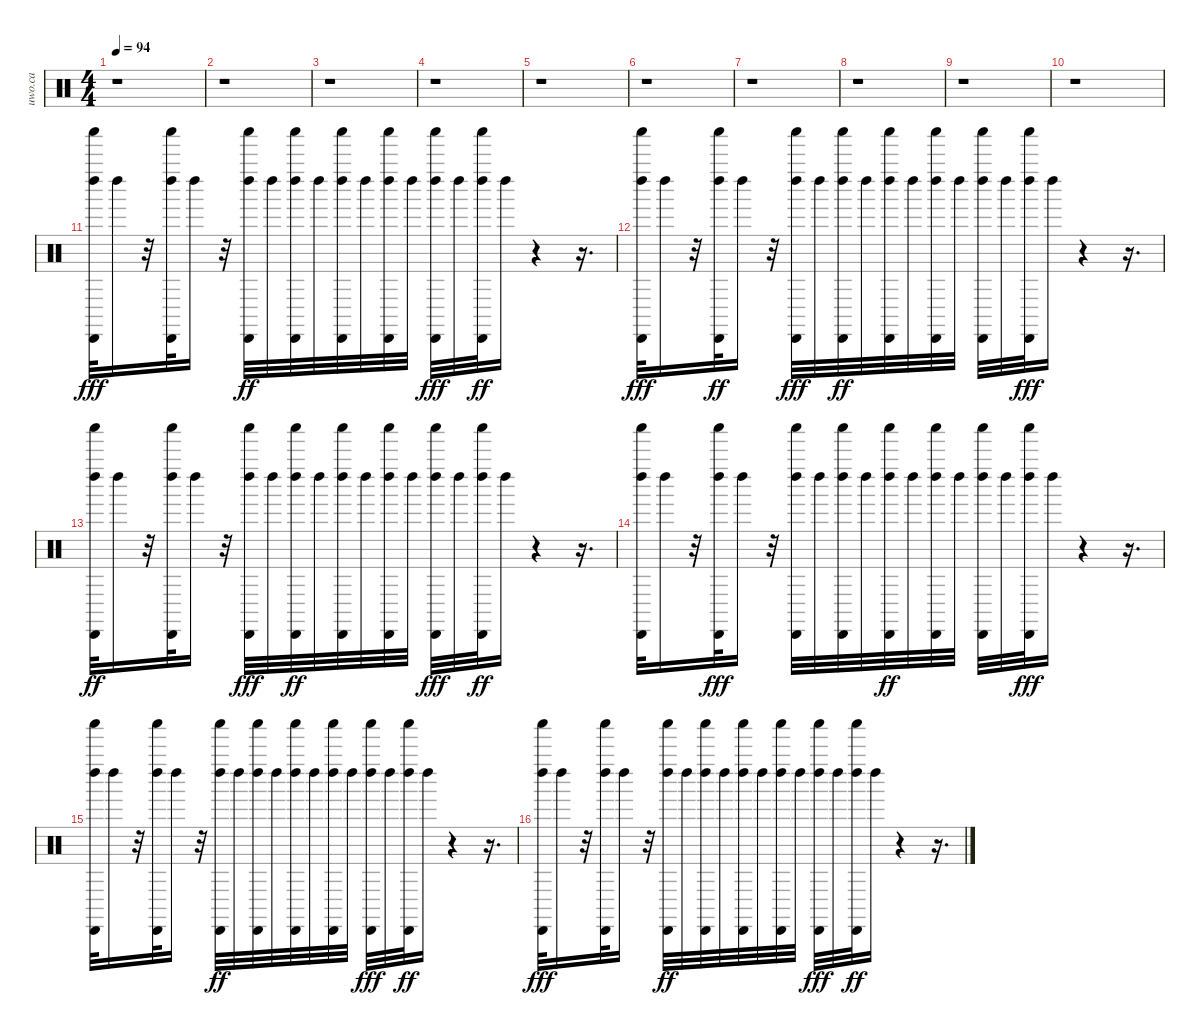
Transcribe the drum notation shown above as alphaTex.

\track ("uwo.ca" "uwo.ca") {instrument percussion}
\staff {score}
\articulation defaults
\ts (4 4)
\tempo 94
\clef neutral
\ks c
r.1{dy ff} |
r.1 |
r.1 |
r.1 |
r.1 |
r.1 |
r.1 |
r.1 |
r.1 |
r.1 |
("Shaker (hit)" "Cabasa (hit)" "Left Maraca (hit)").32{dy fff} "Left Maraca (hit)".16 r.32 ("Shaker (hit)" "Cabasa (hit)" "Left Maraca (hit)").32 "Left Maraca (hit)".16 r.32 ("Shaker (hit)" "Cabasa (hit)" "Left Maraca (hit)").32{dy ff} "Left Maraca (hit)".32 ("Cabasa (hit)" "Shaker (hit)" "Left Maraca (hit)").32 "Left Maraca (hit)".32 ("Cabasa (hit)" "Shaker (hit)" "Left Maraca (hit)").32 "Left Maraca (hit)".32 ("Cabasa (hit)" "Shaker (hit)" "Left Maraca (hit)").32 "Left Maraca (hit)".32 ("Cabasa (hit)" "Shaker (hit)" "Left Maraca (hit)").32{dy fff} "Left Maraca (hit)".32 ("Shaker (hit)" "Cabasa (hit)" "Left Maraca (hit)").32{dy ff} "Left Maraca (hit)".16 r.4 r.16{d} |
("Shaker (hit)" "Cabasa (hit)" "Left Maraca (hit)").32{dy fff} "Left Maraca (hit)".16 r.32 ("Shaker (hit)" "Cabasa (hit)" "Left Maraca (hit)").32{dy ff} "Left Maraca (hit)".16 r.32 ("Shaker (hit)" "Cabasa (hit)" "Left Maraca (hit)").32{dy fff} "Left Maraca (hit)".32 ("Shaker (hit)" "Cabasa (hit)" "Left Maraca (hit)").32{dy ff} "Left Maraca (hit)".32 ("Cabasa (hit)" "Shaker (hit)" "Left Maraca (hit)").32 "Left Maraca (hit)".32 ("Cabasa (hit)" "Shaker (hit)" "Left Maraca (hit)").32 "Left Maraca (hit)".32 ("Cabasa (hit)" "Shaker (hit)" "Left Maraca (hit)").32 "Left Maraca (hit)".32 ("Cabasa (hit)" "Shaker (hit)" "Left Maraca (hit)").32{dy fff} "Left Maraca (hit)".16 r.4 r.16{d} |
("Shaker (hit)" "Cabasa (hit)" "Left Maraca (hit)").32{dy ff} "Left Maraca (hit)".16 r.32 ("Shaker (hit)" "Cabasa (hit)" "Left Maraca (hit)").32 "Left Maraca (hit)".16 r.32 ("Shaker (hit)" "Cabasa (hit)" "Left Maraca (hit)").32{dy fff} "Left Maraca (hit)".32 ("Shaker (hit)" "Cabasa (hit)" "Left Maraca (hit)").32{dy ff} "Left Maraca (hit)".32 ("Cabasa (hit)" "Shaker (hit)" "Left Maraca (hit)").32 "Left Maraca (hit)".32 ("Cabasa (hit)" "Shaker (hit)" "Left Maraca (hit)").32 "Left Maraca (hit)".32 ("Cabasa (hit)" "Shaker (hit)" "Left Maraca (hit)").32{dy fff} "Left Maraca (hit)".32 ("Cabasa (hit)" "Shaker (hit)" "Left Maraca (hit)").32{dy ff} "Left Maraca (hit)".16 r.4 r.16{d} |
("Shaker (hit)" "Cabasa (hit)" "Left Maraca (hit)").32 "Left Maraca (hit)".16 r.32 ("Shaker (hit)" "Cabasa (hit)" "Left Maraca (hit)").32{dy fff} "Left Maraca (hit)".16 r.32 ("Shaker (hit)" "Cabasa (hit)" "Left Maraca (hit)").32 "Left Maraca (hit)".32 ("Shaker (hit)" "Cabasa (hit)" "Left Maraca (hit)").32 "Left Maraca (hit)".32 ("Cabasa (hit)" "Shaker (hit)" "Left Maraca (hit)").32{dy ff} "Left Maraca (hit)".32 ("Cabasa (hit)" "Shaker (hit)" "Left Maraca (hit)").32 "Left Maraca (hit)".32 ("Cabasa (hit)" "Shaker (hit)" "Left Maraca (hit)").32 "Left Maraca (hit)".32 ("Cabasa (hit)" "Shaker (hit)" "Left Maraca (hit)").32{dy fff} "Left Maraca (hit)".16 r.4 r.16{d} |
("Shaker (hit)" "Cabasa (hit)" "Left Maraca (hit)").32 "Left Maraca (hit)".16 r.32 ("Shaker (hit)" "Cabasa (hit)" "Left Maraca (hit)").32 "Left Maraca (hit)".16 r.32 ("Shaker (hit)" "Cabasa (hit)" "Left Maraca (hit)").32{dy ff} "Left Maraca (hit)".32 ("Cabasa (hit)" "Shaker (hit)" "Left Maraca (hit)").32 "Left Maraca (hit)".32 ("Cabasa (hit)" "Shaker (hit)" "Left Maraca (hit)").32 "Left Maraca (hit)".32 ("Cabasa (hit)" "Shaker (hit)" "Left Maraca (hit)").32 "Left Maraca (hit)".32 ("Cabasa (hit)" "Shaker (hit)" "Left Maraca (hit)").32{dy fff} "Left Maraca (hit)".32 ("Shaker (hit)" "Cabasa (hit)" "Left Maraca (hit)").32{dy ff} "Left Maraca (hit)".16 r.4 r.16{d} |
("Shaker (hit)" "Cabasa (hit)" "Left Maraca (hit)").32{dy fff} "Left Maraca (hit)".16 r.32 ("Shaker (hit)" "Cabasa (hit)" "Left Maraca (hit)").32 "Left Maraca (hit)".16 r.32 ("Shaker (hit)" "Cabasa (hit)" "Left Maraca (hit)").32{dy ff} "Left Maraca (hit)".32 ("Cabasa (hit)" "Shaker (hit)" "Left Maraca (hit)").32 "Left Maraca (hit)".32 ("Cabasa (hit)" "Shaker (hit)" "Left Maraca (hit)").32 "Left Maraca (hit)".32 ("Cabasa (hit)" "Shaker (hit)" "Left Maraca (hit)").32 "Left Maraca (hit)".32 ("Cabasa (hit)" "Shaker (hit)" "Left Maraca (hit)").32{dy fff} "Left Maraca (hit)".32 ("Shaker (hit)" "Cabasa (hit)" "Left Maraca (hit)").32{dy ff} "Left Maraca (hit)".16 r.4 r.16{d}
